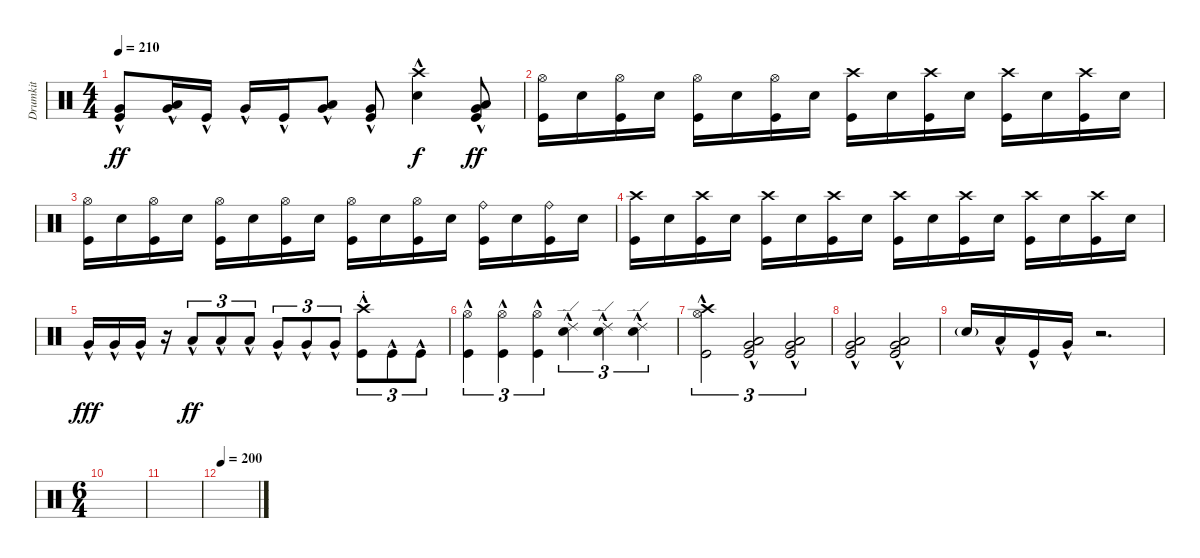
\track ("Drumkit" "Drumkit") {instrument percussion}
\staff {score}
\articulation defaults
\ts (4 4)
\tempo 210
\clef neutral
\ks c
("Kick (hit)"{hac} "Very Low Tom (hit)"{hac}).8{dy ff} ("Low Tom (hit)"{hac} "Very Low Tom (hit)"{hac}).16 "Kick (hit)"{hac}.16 "Very Low Tom (hit)"{hac}.16 "Kick (hit)"{hac}.16 ("Low Tom (hit)"{hac} "Very Low Tom (hit)"{hac}).8 ("Kick (hit)"{hac} "Very Low Tom (hit)"{hac}).8 ("Snare (hit) 2"{hac} "Crash high (hit)"{hac}).4{dy f} ("Low Tom (hit)"{hac} "Very Low Tom (hit)"{hac} "Kick (hit)"{hac}).8{dy ff} |
("Hi-Hat (open)" "Kick (hit)").16 "Snare (hit) 2".16 ("Hi-Hat (open)" "Kick (hit)").16 "Snare (hit) 2".16 ("Hi-Hat (open)" "Kick (hit)").16 "Snare (hit) 2".16 ("Hi-Hat (open)" "Kick (hit)").16 "Snare (hit) 2".16 ("Kick (hit)" "Crash high (hit)").16 "Snare (hit) 2".16 ("Kick (hit)" "Crash high (hit)").16 "Snare (hit) 2".16 ("Kick (hit)" "Crash high (hit)").16 "Snare (hit) 2".16 ("Kick (hit)" "Crash high (hit)").16 "Snare (hit) 2".16 |
("Hi-Hat (open)" "Kick (hit)").16 "Snare (hit) 2".16 ("Hi-Hat (open)" "Kick (hit)").16 "Snare (hit) 2".16 ("Hi-Hat (open)" "Kick (hit)").16 "Snare (hit) 2".16 ("Hi-Hat (open)" "Kick (hit)").16 "Snare (hit) 2".16 ("Hi-Hat (open)" "Kick (hit)").16 "Snare (hit) 2".16 ("Hi-Hat (open)" "Kick (hit)").16 "Snare (hit) 2".16 ("Kick (hit)" "Ride (bell)").16 "Snare (hit) 2".16 ("Kick (hit)" "Ride (bell)").16 "Snare (hit) 2".16 |
("Kick (hit)" "Crash high (hit)").16 "Snare (hit) 2".16 ("Kick (hit)" "Crash high (hit)").16 "Snare (hit) 2".16 ("Kick (hit)" "Crash high (hit)").16 "Snare (hit) 2".16 ("Kick (hit)" "Crash high (hit)").16 "Snare (hit) 2".16 ("Kick (hit)" "Crash high (hit)").16 "Snare (hit) 2".16 ("Kick (hit)" "Crash high (hit)").16 "Snare (hit) 2".16 ("Kick (hit)" "Crash high (hit)").16 "Snare (hit) 2".16 ("Kick (hit)" "Crash high (hit)").16 "Snare (hit) 2".16 |
"Very Low Tom (hit)"{hac}.16{dy fff} "Very Low Tom (hit)"{hac}.16 "Very Low Tom (hit)"{hac}.16 r.16 "Low Tom (hit)"{hac}.8{tu (3 2) dy ff} "Low Tom (hit)"{hac}.8{tu (3 2)} "Low Tom (hit)"{hac}.8{tu (3 2)} "Very Low Tom (hit)"{hac}.8{tu (3 2)} "Very Low Tom (hit)"{hac}.8{tu (3 2)} "Very Low Tom (hit)"{hac}.8{tu (3 2)} ("Kick (hit)"{hac} "Crash high (hit)"{hac st}).8{tu (3 2)} "Kick (hit)"{hac}.8{tu (3 2)} "Kick (hit)"{hac}.8{tu (3 2)} |
("Kick (hit)"{hac} "Hi-Hat (open)"{hac}).4{tu (3 2)} ("Kick (hit)"{hac} "Hi-Hat (open)"{hac}).4{tu (3 2)} ("Kick (hit)"{hac} "Hi-Hat (open)"{hac}).4{tu (3 2)} ("Snare (hit) 2"{hac} "Ride (edge) 2"{hac}).4{tu (3 2)} ("Snare (hit) 2"{hac} "Ride (edge) 2"{hac}).4{tu (3 2)} ("Snare (hit) 2"{hac} "Ride (edge) 2"{hac}).4{tu (3 2)} |
("Kick (hit)"{hac} "Crash high (hit)"{hac} "Hi-Hat (open)"{hac}).2{tu (3 2)} ("Kick (hit)"{hac} "Very Low Tom (hit)"{hac} "Low Tom (hit)"{hac}).2{tu (3 2)} ("Kick (hit)"{hac} "Low Tom (hit)"{hac} "Very Low Tom (hit)"{hac}).2{tu (3 2)} |
("Kick (hit)"{hac} "Very Low Tom (hit)"{hac} "Low Tom (hit)"{hac}).2 ("Kick (hit)"{hac} "Very Low Tom (hit)"{hac} "Low Tom (hit)"{hac}).2 |
"Snare (hit) 2"{g}.16 "Low Tom (hit)"{hac}.16 "Kick (hit)"{hac}.16 "Very Low Tom (hit)"{hac}.16 r.2{d} |
\ts (6 4)
|
|
\tempo 200
